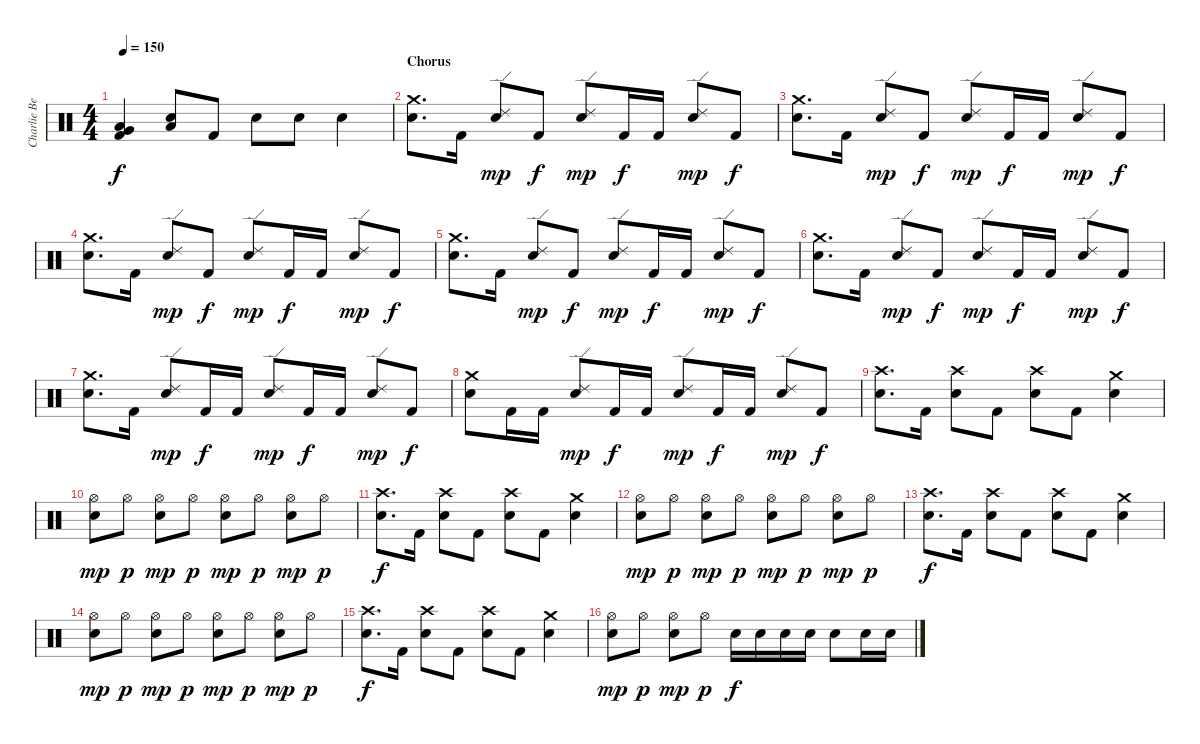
\track ("Charlie Benante" "Charlie Be") {instrument percussion}
\staff {score}
\articulation defaults
\ts (4 4)
\tempo 150
\clef neutral
\ks c
("Kick (hit) 2" "Low Tom (hit)" "Very Low Tom (hit)").4{dy f} ("Snare (hit) 2" "Low Tom (hit)").8 "Kick (hit) 2".8 "Snare (hit) 2".8 "Snare (hit) 2".8 "Snare (hit) 2".4 |
\section ("" "Chorus")
("Crash medium (hit)" "Snare (hit) 2").8{d} "Kick (hit) 2".16 ("Ride (edge) 2" "Snare (hit) 2").8{dy mp} "Kick (hit) 2".8{dy f} ("Ride (edge) 2" "Snare (hit) 2").8{dy mp} "Kick (hit) 2".16{dy f} "Kick (hit) 2".16 ("Ride (edge) 2" "Snare (hit) 2").8{dy mp} "Kick (hit) 2".8{dy f} |
("Crash medium (hit)" "Snare (hit) 2").8{d} "Kick (hit) 2".16 ("Ride (edge) 2" "Snare (hit) 2").8{dy mp} "Kick (hit) 2".8{dy f} ("Ride (edge) 2" "Snare (hit) 2").8{dy mp} "Kick (hit) 2".16{dy f} "Kick (hit) 2".16 ("Ride (edge) 2" "Snare (hit) 2").8{dy mp} "Kick (hit) 2".8{dy f} |
("Crash medium (hit)" "Snare (hit) 2").8{d} "Kick (hit) 2".16 ("Ride (edge) 2" "Snare (hit) 2").8{dy mp} "Kick (hit) 2".8{dy f} ("Ride (edge) 2" "Snare (hit) 2").8{dy mp} "Kick (hit) 2".16{dy f} "Kick (hit) 2".16 ("Ride (edge) 2" "Snare (hit) 2").8{dy mp} "Kick (hit) 2".8{dy f} |
("Crash medium (hit)" "Snare (hit) 2").8{d} "Kick (hit) 2".16 ("Ride (edge) 2" "Snare (hit) 2").8{dy mp} "Kick (hit) 2".8{dy f} ("Ride (edge) 2" "Snare (hit) 2").8{dy mp} "Kick (hit) 2".16{dy f} "Kick (hit) 2".16 ("Ride (edge) 2" "Snare (hit) 2").8{dy mp} "Kick (hit) 2".8{dy f} |
("Crash medium (hit)" "Snare (hit) 2").8{d} "Kick (hit) 2".16 ("Ride (edge) 2" "Snare (hit) 2").8{dy mp} "Kick (hit) 2".8{dy f} ("Ride (edge) 2" "Snare (hit) 2").8{dy mp} "Kick (hit) 2".16{dy f} "Kick (hit) 2".16 ("Ride (edge) 2" "Snare (hit) 2").8{dy mp} "Kick (hit) 2".8{dy f} |
("Crash medium (hit)" "Snare (hit) 2").8{d} "Kick (hit) 2".16 ("Ride (edge) 2" "Snare (hit) 2").8{dy mp} "Kick (hit) 2".16{dy f} "Kick (hit) 2".16 ("Ride (edge) 2" "Snare (hit) 2").8{dy mp} "Kick (hit) 2".16{dy f} "Kick (hit) 2".16 ("Ride (edge) 2" "Snare (hit) 2").8{dy mp} "Kick (hit) 2".8{dy f} |
("Crash medium (hit)" "Snare (hit) 2").8 "Kick (hit) 2".16 "Kick (hit) 2".16 ("Ride (edge) 2" "Snare (hit) 2").8{dy mp} "Kick (hit) 2".16{dy f} "Kick (hit) 2".16 ("Ride (edge) 2" "Snare (hit) 2").8{dy mp} "Kick (hit) 2".16{dy f} "Kick (hit) 2".16 ("Ride (edge) 2" "Snare (hit) 2").8{dy mp} "Kick (hit) 2".8{dy f} |
("Crash high (hit)" "Snare (hit) 2").8{d} "Kick (hit) 2".16 ("Crash high (hit)" "Snare (hit) 2").8 "Kick (hit) 2".8 ("Crash high (hit)" "Snare (hit) 2").8 "Kick (hit) 2".8 ("Crash medium (hit)" "Snare (hit) 2").4 |
("Hi-Hat (open)" "Snare (hit) 2").8{dy mp} "Hi-Hat (open)".8{dy p} ("Hi-Hat (open)" "Snare (hit) 2").8{dy mp} "Hi-Hat (open)".8{dy p} ("Hi-Hat (open)" "Snare (hit) 2").8{dy mp} "Hi-Hat (open)".8{dy p} ("Hi-Hat (open)" "Snare (hit) 2").8{dy mp} "Hi-Hat (open)".8{dy p} |
("Crash high (hit)" "Snare (hit) 2").8{d dy f} "Kick (hit) 2".16 ("Crash high (hit)" "Snare (hit) 2").8 "Kick (hit) 2".8 ("Crash high (hit)" "Snare (hit) 2").8 "Kick (hit) 2".8 ("Crash medium (hit)" "Snare (hit) 2").4 |
("Hi-Hat (open)" "Snare (hit) 2").8{dy mp} "Hi-Hat (open)".8{dy p} ("Hi-Hat (open)" "Snare (hit) 2").8{dy mp} "Hi-Hat (open)".8{dy p} ("Hi-Hat (open)" "Snare (hit) 2").8{dy mp} "Hi-Hat (open)".8{dy p} ("Hi-Hat (open)" "Snare (hit) 2").8{dy mp} "Hi-Hat (open)".8{dy p} |
("Crash high (hit)" "Snare (hit) 2").8{d dy f} "Kick (hit) 2".16 ("Crash high (hit)" "Snare (hit) 2").8 "Kick (hit) 2".8 ("Crash high (hit)" "Snare (hit) 2").8 "Kick (hit) 2".8 ("Crash medium (hit)" "Snare (hit) 2").4 |
("Hi-Hat (open)" "Snare (hit) 2").8{dy mp} "Hi-Hat (open)".8{dy p} ("Hi-Hat (open)" "Snare (hit) 2").8{dy mp} "Hi-Hat (open)".8{dy p} ("Hi-Hat (open)" "Snare (hit) 2").8{dy mp} "Hi-Hat (open)".8{dy p} ("Hi-Hat (open)" "Snare (hit) 2").8{dy mp} "Hi-Hat (open)".8{dy p} |
("Crash high (hit)" "Snare (hit) 2").8{d dy f} "Kick (hit) 2".16 ("Crash high (hit)" "Snare (hit) 2").8 "Kick (hit) 2".8 ("Crash high (hit)" "Snare (hit) 2").8 "Kick (hit) 2".8 ("Crash medium (hit)" "Snare (hit) 2").4 |
("Hi-Hat (open)" "Snare (hit) 2").8{dy mp} "Hi-Hat (open)".8{dy p} ("Hi-Hat (open)" "Snare (hit) 2").8{dy mp} "Hi-Hat (open)".8{dy p} "Snare (hit) 2".16{dy f} "Snare (hit) 2".16 "Snare (hit) 2".16 "Snare (hit) 2".16 "Snare (hit) 2".8 "Snare (hit) 2".16 "Snare (hit) 2".16
